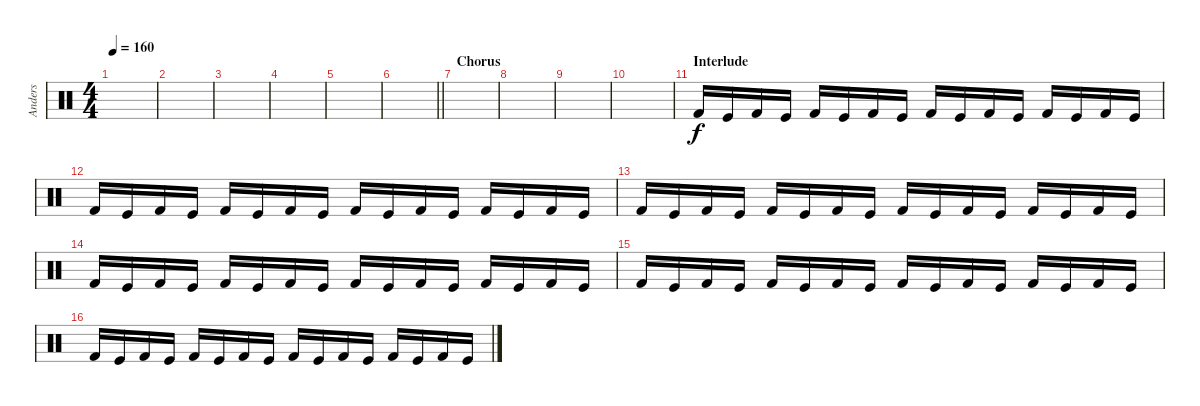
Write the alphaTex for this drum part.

\track ("Anders" "Anders") {instrument percussion}
\staff {score}
\articulation defaults
\ts (4 4)
\tempo 160
\clef neutral
\ks c
|
|
|
|
|
\barLineRight lightlight
|
\section ("" "Chorus")
|
|
|
|
\section ("" "Interlude")
"Kick (hit) 2".16 "Kick (hit)".16 "Kick (hit) 2".16 "Kick (hit)".16 "Kick (hit) 2".16 "Kick (hit)".16 "Kick (hit) 2".16 "Kick (hit)".16 "Kick (hit) 2".16 "Kick (hit)".16 "Kick (hit) 2".16 "Kick (hit)".16 "Kick (hit) 2".16 "Kick (hit)".16 "Kick (hit) 2".16 "Kick (hit)".16 |
"Kick (hit) 2".16 "Kick (hit)".16 "Kick (hit) 2".16 "Kick (hit)".16 "Kick (hit) 2".16 "Kick (hit)".16 "Kick (hit) 2".16 "Kick (hit)".16 "Kick (hit) 2".16 "Kick (hit)".16 "Kick (hit) 2".16 "Kick (hit)".16 "Kick (hit) 2".16 "Kick (hit)".16 "Kick (hit) 2".16 "Kick (hit)".16 |
"Kick (hit) 2".16 "Kick (hit)".16 "Kick (hit) 2".16 "Kick (hit)".16 "Kick (hit) 2".16 "Kick (hit)".16 "Kick (hit) 2".16 "Kick (hit)".16 "Kick (hit) 2".16 "Kick (hit)".16 "Kick (hit) 2".16 "Kick (hit)".16 "Kick (hit) 2".16 "Kick (hit)".16 "Kick (hit) 2".16 "Kick (hit)".16 |
"Kick (hit) 2".16 "Kick (hit)".16 "Kick (hit) 2".16 "Kick (hit)".16 "Kick (hit) 2".16 "Kick (hit)".16 "Kick (hit) 2".16 "Kick (hit)".16 "Kick (hit) 2".16 "Kick (hit)".16 "Kick (hit) 2".16 "Kick (hit)".16 "Kick (hit) 2".16 "Kick (hit)".16 "Kick (hit) 2".16 "Kick (hit)".16 |
"Kick (hit) 2".16 "Kick (hit)".16 "Kick (hit) 2".16 "Kick (hit)".16 "Kick (hit) 2".16 "Kick (hit)".16 "Kick (hit) 2".16 "Kick (hit)".16 "Kick (hit) 2".16 "Kick (hit)".16 "Kick (hit) 2".16 "Kick (hit)".16 "Kick (hit) 2".16 "Kick (hit)".16 "Kick (hit) 2".16 "Kick (hit)".16 |
"Kick (hit) 2".16 "Kick (hit)".16 "Kick (hit) 2".16 "Kick (hit)".16 "Kick (hit) 2".16 "Kick (hit)".16 "Kick (hit) 2".16 "Kick (hit)".16 "Kick (hit) 2".16 "Kick (hit)".16 "Kick (hit) 2".16 "Kick (hit)".16 "Kick (hit) 2".16 "Kick (hit)".16 "Kick (hit) 2".16 "Kick (hit)".16
